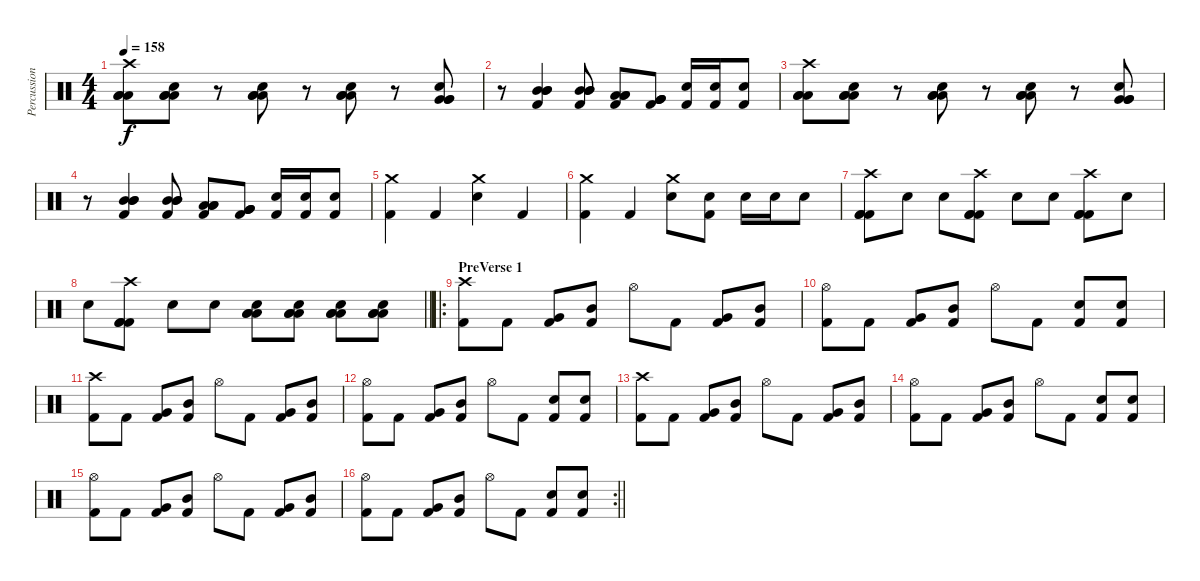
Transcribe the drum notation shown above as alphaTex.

\track ("Percussion" "Percussion") {instrument percussion}
\staff {score}
\articulation defaults
\ts (4 4)
\tempo 158
\clef neutral
\ks c
("Low Floor Tom (hit)" "Low Floor Tom (hit)" "Low Floor Tom (hit)" "Crash high (hit)").8{dy f} ("Low Floor Tom (hit)" "Low Floor Tom (hit)" "Low Floor Tom (hit)" "Electric Snare (hit)").8 r.8 ("Low Floor Tom (hit)" "Low Floor Tom (hit)" "Low Floor Tom (hit)" "Electric Snare (hit)").8 r.8 ("Low Floor Tom (hit)" "Low Floor Tom (hit)" "Low Floor Tom (hit)" "Electric Snare (hit)").8 r.8 ("Very Low Tom (hit)" "Very Low Tom (hit)" "Very Low Tom (hit)" "Electric Snare (hit)").8 |
r.8 ("Mid Tom (hit)" "Mid Tom (hit)" "Mid Tom (hit)" "Kick (hit) 2").4 ("Mid Tom (hit)" "Mid Tom (hit)" "Mid Tom (hit)" "Kick (hit) 2").8 ("Low Floor Tom (hit)" "Low Floor Tom (hit)" "Low Floor Tom (hit)" "Kick (hit) 2").8 ("Very Low Tom (hit)" "Very Low Tom (hit)" "Very Low Tom (hit)" "Kick (hit) 2").8 ("Electric Snare (hit)" "Kick (hit) 2").16 ("Electric Snare (hit)" "Kick (hit) 2").16 ("Electric Snare (hit)" "Kick (hit) 2").8 |
("Low Floor Tom (hit)" "Low Floor Tom (hit)" "Low Floor Tom (hit)" "Crash high (hit)").8 ("Low Floor Tom (hit)" "Low Floor Tom (hit)" "Low Floor Tom (hit)" "Electric Snare (hit)").8 r.8 ("Low Floor Tom (hit)" "Low Floor Tom (hit)" "Low Floor Tom (hit)" "Electric Snare (hit)").8 r.8 ("Low Floor Tom (hit)" "Low Floor Tom (hit)" "Low Floor Tom (hit)" "Electric Snare (hit)").8 r.8 ("Very Low Tom (hit)" "Very Low Tom (hit)" "Very Low Tom (hit)" "Electric Snare (hit)").8 |
r.8 ("Mid Tom (hit)" "Mid Tom (hit)" "Mid Tom (hit)" "Kick (hit) 2").4 ("Mid Tom (hit)" "Mid Tom (hit)" "Mid Tom (hit)" "Kick (hit) 2").8 ("Low Floor Tom (hit)" "Low Floor Tom (hit)" "Low Floor Tom (hit)" "Kick (hit) 2").8 ("Very Low Tom (hit)" "Very Low Tom (hit)" "Very Low Tom (hit)" "Kick (hit) 2").8 ("Electric Snare (hit)" "Kick (hit) 2").16 ("Electric Snare (hit)" "Kick (hit) 2").16 ("Electric Snare (hit)" "Kick (hit) 2").8 |
("Crash medium (hit)" "Kick (hit) 2").4 "Kick (hit) 2".4 ("Crash medium (hit)" "Electric Snare (hit)").4 "Kick (hit) 2".4 |
("Crash medium (hit)" "Kick (hit) 2").4 "Kick (hit) 2".4 ("Crash medium (hit)" "Electric Snare (hit)").8 ("Electric Snare (hit)" "Kick (hit) 2").8 "Electric Snare (hit)".16 "Electric Snare (hit)".16 "Electric Snare (hit)".8 |
("Crash high (hit)" "Kick (hit) 2" "Kick (hit) 2" "Kick (hit) 2").8 "Electric Snare (hit)".8 "Electric Snare (hit)".8 ("Crash high (hit)" "Kick (hit) 2" "Kick (hit) 2" "Kick (hit) 2").8 "Electric Snare (hit)".8 "Electric Snare (hit)".8 ("Crash high (hit)" "Kick (hit) 2" "Kick (hit) 2" "Kick (hit) 2").8 "Electric Snare (hit)".8 |
\barLineRight lightlight "Electric Snare (hit)".8
("Crash high (hit)" "Kick (hit) 2" "Kick (hit) 2" "Kick (hit) 2").8 "Electric Snare (hit)".8 "Electric Snare (hit)".8 ("Low Floor Tom (hit)" "Low Floor Tom (hit)" "Low Floor Tom (hit)" "Electric Snare (hit)").8 ("Low Floor Tom (hit)" "Low Floor Tom (hit)" "Low Floor Tom (hit)" "Electric Snare (hit)").8 ("Low Floor Tom (hit)" "Low Floor Tom (hit)" "Low Floor Tom (hit)" "Electric Snare (hit)").8 ("Low Floor Tom (hit)" "Low Floor Tom (hit)" "Low Floor Tom (hit)" "Electric Snare (hit)").8 |
\ro
\section ("" "PreVerse 1")
("Crash high (hit)" "Kick (hit) 2").8 "Kick (hit) 2".8 ("Very Low Tom (hit)" "Kick (hit) 2").8 ("Mid Tom (hit)" "Kick (hit) 2").8 "Hi-Hat (open)".8 "Kick (hit) 2".8 ("Very Low Tom (hit)" "Kick (hit) 2").8 ("Mid Tom (hit)" "Kick (hit) 2").8 |
("Hi-Hat (open)" "Kick (hit) 2").8 "Kick (hit) 2".8 ("Very Low Tom (hit)" "Kick (hit) 2").8 ("Mid Tom (hit)" "Kick (hit) 2").8 "Hi-Hat (open)".8 "Kick (hit) 2".8 ("Electric Snare (hit)" "Kick (hit) 2").8 ("Electric Snare (hit)" "Kick (hit) 2").8 |
("Crash high (hit)" "Kick (hit) 2").8 "Kick (hit) 2".8 ("Very Low Tom (hit)" "Kick (hit) 2").8 ("Mid Tom (hit)" "Kick (hit) 2").8 "Hi-Hat (open)".8 "Kick (hit) 2".8 ("Very Low Tom (hit)" "Kick (hit) 2").8 ("Mid Tom (hit)" "Kick (hit) 2").8 |
("Hi-Hat (open)" "Kick (hit) 2").8 "Kick (hit) 2".8 ("Very Low Tom (hit)" "Kick (hit) 2").8 ("Mid Tom (hit)" "Kick (hit) 2").8 "Hi-Hat (open)".8 "Kick (hit) 2".8 ("Electric Snare (hit)" "Kick (hit) 2").8 ("Electric Snare (hit)" "Kick (hit) 2").8 |
("Crash high (hit)" "Kick (hit) 2").8 "Kick (hit) 2".8 ("Very Low Tom (hit)" "Kick (hit) 2").8 ("Mid Tom (hit)" "Kick (hit) 2").8 "Hi-Hat (open)".8 "Kick (hit) 2".8 ("Very Low Tom (hit)" "Kick (hit) 2").8 ("Mid Tom (hit)" "Kick (hit) 2").8 |
("Hi-Hat (open)" "Kick (hit) 2").8 "Kick (hit) 2".8 ("Very Low Tom (hit)" "Kick (hit) 2").8 ("Mid Tom (hit)" "Kick (hit) 2").8 "Hi-Hat (open)".8 "Kick (hit) 2".8 ("Electric Snare (hit)" "Kick (hit) 2").8 ("Electric Snare (hit)" "Kick (hit) 2").8 |
("Hi-Hat (open)" "Kick (hit) 2").8 "Kick (hit) 2".8 ("Very Low Tom (hit)" "Kick (hit) 2").8 ("Mid Tom (hit)" "Kick (hit) 2").8 "Hi-Hat (open)".8 "Kick (hit) 2".8 ("Very Low Tom (hit)" "Kick (hit) 2").8 ("Mid Tom (hit)" "Kick (hit) 2").8 |
\rc 2
\barLineRight lightlight
("Hi-Hat (open)" "Kick (hit) 2").8 "Kick (hit) 2".8 ("Very Low Tom (hit)" "Kick (hit) 2").8 ("Mid Tom (hit)" "Kick (hit) 2").8 "Hi-Hat (open)".8 "Kick (hit) 2".8 ("Electric Snare (hit)" "Kick (hit) 2").8 ("Electric Snare (hit)" "Kick (hit) 2").8
